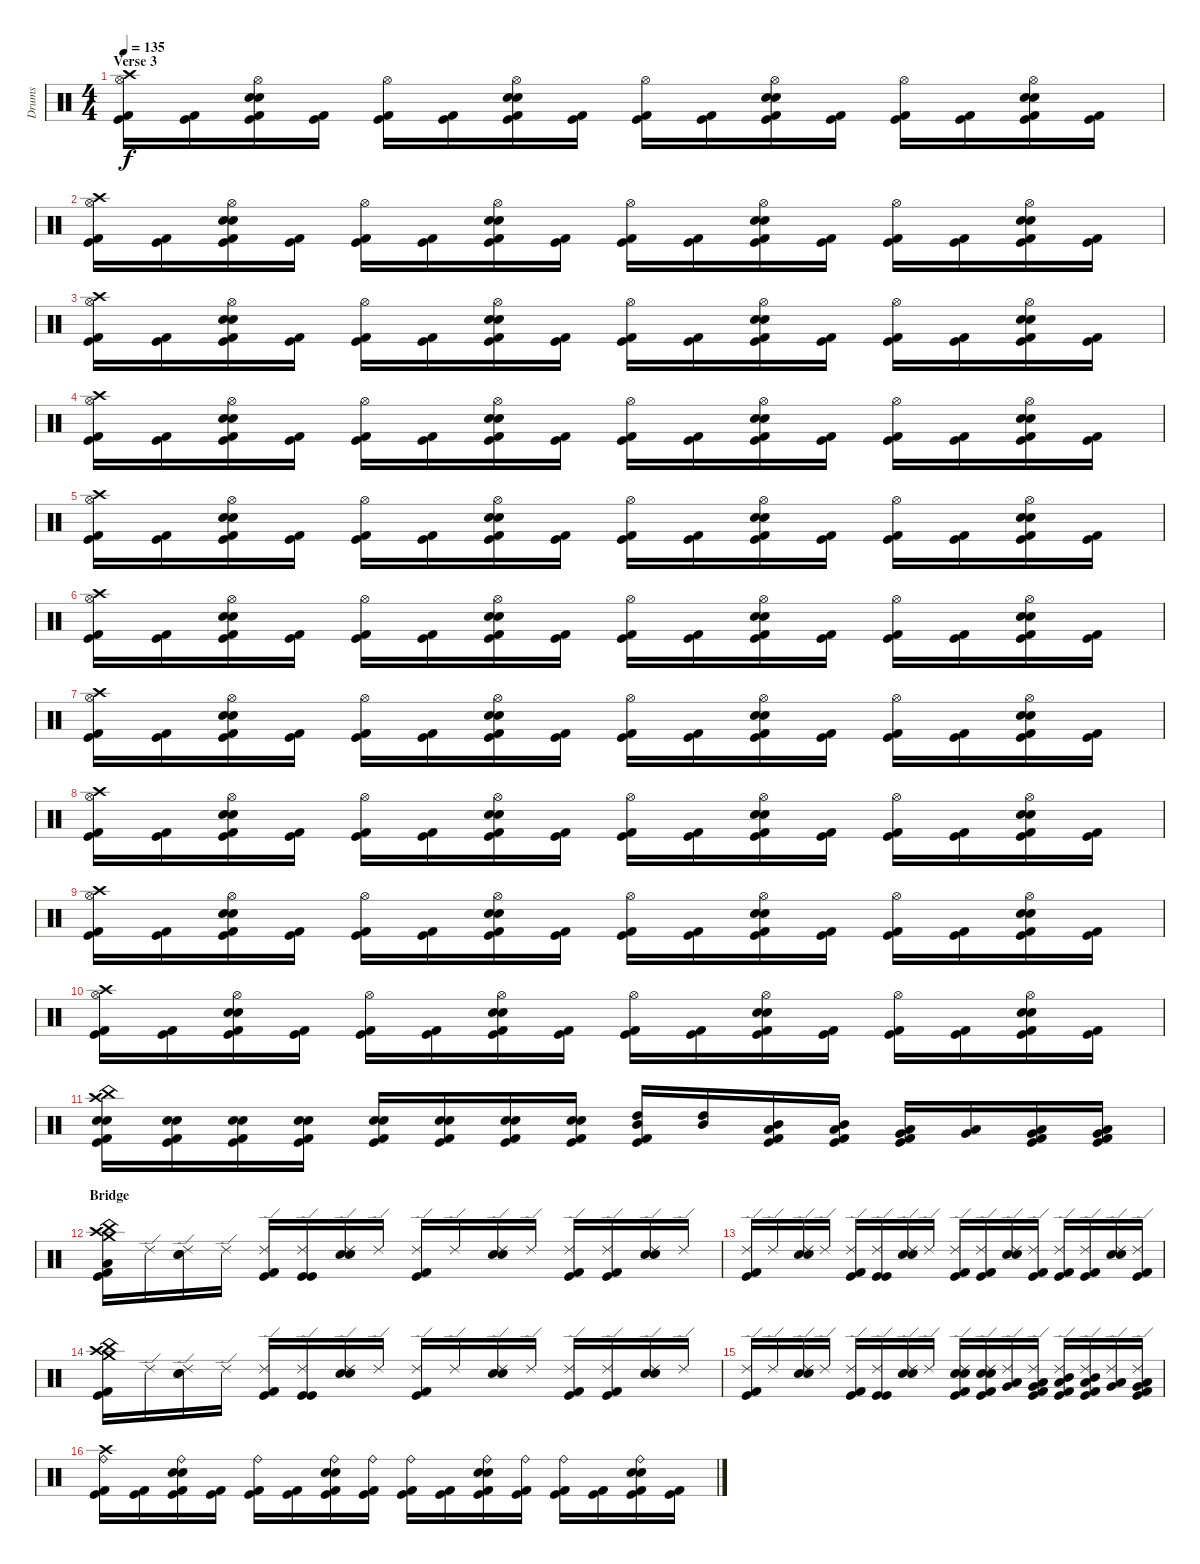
\track ("Drums" "Drums") {instrument percussion}
\staff {score}
\articulation defaults
\ts (4 4)
\section ("" "Verse 3")
\tempo 135
\clef neutral
\ks c
("Crash high (hit)" "Hi-Hat (open)" "Kick (hit) 2" "Kick (hit)").16{dy f} ("Kick (hit) 2" "Kick (hit)").16 ("Hi-Hat (open)" "Snare (hit) 2" "Electric Snare (hit)" "Kick (hit) 2" "Kick (hit)").16 ("Kick (hit) 2" "Kick (hit)").16 ("Hi-Hat (open)" "Kick (hit) 2" "Kick (hit)").16 ("Kick (hit) 2" "Kick (hit)").16 ("Hi-Hat (open)" "Snare (hit) 2" "Electric Snare (hit)" "Kick (hit) 2" "Kick (hit)").16 ("Kick (hit) 2" "Kick (hit)").16 ("Hi-Hat (open)" "Kick (hit) 2" "Kick (hit)").16 ("Kick (hit) 2" "Kick (hit)").16 ("Hi-Hat (open)" "Snare (hit) 2" "Electric Snare (hit)" "Kick (hit) 2" "Kick (hit)").16 ("Kick (hit) 2" "Kick (hit)").16 ("Hi-Hat (open)" "Kick (hit) 2" "Kick (hit)").16 ("Kick (hit) 2" "Kick (hit)").16 ("Hi-Hat (open)" "Snare (hit) 2" "Electric Snare (hit)" "Kick (hit) 2" "Kick (hit)").16 ("Kick (hit) 2" "Kick (hit)").16 |
("Crash high (hit)" "Hi-Hat (open)" "Kick (hit) 2" "Kick (hit)").16 ("Kick (hit) 2" "Kick (hit)").16 ("Hi-Hat (open)" "Snare (hit) 2" "Electric Snare (hit)" "Kick (hit) 2" "Kick (hit)").16 ("Kick (hit) 2" "Kick (hit)").16 ("Hi-Hat (open)" "Kick (hit) 2" "Kick (hit)").16 ("Kick (hit) 2" "Kick (hit)").16 ("Hi-Hat (open)" "Snare (hit) 2" "Electric Snare (hit)" "Kick (hit) 2" "Kick (hit)").16 ("Kick (hit) 2" "Kick (hit)").16 ("Hi-Hat (open)" "Kick (hit) 2" "Kick (hit)").16 ("Kick (hit) 2" "Kick (hit)").16 ("Hi-Hat (open)" "Snare (hit) 2" "Electric Snare (hit)" "Kick (hit) 2" "Kick (hit)").16 ("Kick (hit) 2" "Kick (hit)").16 ("Hi-Hat (open)" "Kick (hit) 2" "Kick (hit)").16 ("Kick (hit) 2" "Kick (hit)").16 ("Hi-Hat (open)" "Snare (hit) 2" "Electric Snare (hit)" "Kick (hit) 2" "Kick (hit)").16 ("Kick (hit) 2" "Kick (hit)").16 |
("Crash high (hit)" "Hi-Hat (open)" "Kick (hit) 2" "Kick (hit)").16 ("Kick (hit) 2" "Kick (hit)").16 ("Hi-Hat (open)" "Snare (hit) 2" "Electric Snare (hit)" "Kick (hit) 2" "Kick (hit)").16 ("Kick (hit) 2" "Kick (hit)").16 ("Hi-Hat (open)" "Kick (hit) 2" "Kick (hit)").16 ("Kick (hit) 2" "Kick (hit)").16 ("Hi-Hat (open)" "Snare (hit) 2" "Electric Snare (hit)" "Kick (hit) 2" "Kick (hit)").16 ("Kick (hit) 2" "Kick (hit)").16 ("Hi-Hat (open)" "Kick (hit) 2" "Kick (hit)").16 ("Kick (hit) 2" "Kick (hit)").16 ("Hi-Hat (open)" "Snare (hit) 2" "Electric Snare (hit)" "Kick (hit) 2" "Kick (hit)").16 ("Kick (hit) 2" "Kick (hit)").16 ("Hi-Hat (open)" "Kick (hit) 2" "Kick (hit)").16 ("Kick (hit) 2" "Kick (hit)").16 ("Hi-Hat (open)" "Snare (hit) 2" "Electric Snare (hit)" "Kick (hit) 2" "Kick (hit)").16 ("Kick (hit) 2" "Kick (hit)").16 |
("Crash high (hit)" "Hi-Hat (open)" "Kick (hit) 2" "Kick (hit)").16 ("Kick (hit) 2" "Kick (hit)").16 ("Hi-Hat (open)" "Snare (hit) 2" "Electric Snare (hit)" "Kick (hit) 2" "Kick (hit)").16 ("Kick (hit) 2" "Kick (hit)").16 ("Hi-Hat (open)" "Kick (hit) 2" "Kick (hit)").16 ("Kick (hit) 2" "Kick (hit)").16 ("Hi-Hat (open)" "Snare (hit) 2" "Electric Snare (hit)" "Kick (hit) 2" "Kick (hit)").16 ("Kick (hit) 2" "Kick (hit)").16 ("Hi-Hat (open)" "Kick (hit) 2" "Kick (hit)").16 ("Kick (hit) 2" "Kick (hit)").16 ("Hi-Hat (open)" "Snare (hit) 2" "Electric Snare (hit)" "Kick (hit) 2" "Kick (hit)").16 ("Kick (hit) 2" "Kick (hit)").16 ("Hi-Hat (open)" "Kick (hit) 2" "Kick (hit)").16 ("Kick (hit) 2" "Kick (hit)").16 ("Hi-Hat (open)" "Snare (hit) 2" "Electric Snare (hit)" "Kick (hit) 2" "Kick (hit)").16 ("Kick (hit) 2" "Kick (hit)").16 |
("Crash high (hit)" "Hi-Hat (open)" "Kick (hit) 2" "Kick (hit)").16 ("Kick (hit) 2" "Kick (hit)").16 ("Hi-Hat (open)" "Snare (hit) 2" "Electric Snare (hit)" "Kick (hit) 2" "Kick (hit)").16 ("Kick (hit) 2" "Kick (hit)").16 ("Hi-Hat (open)" "Kick (hit) 2" "Kick (hit)").16 ("Kick (hit) 2" "Kick (hit)").16 ("Hi-Hat (open)" "Snare (hit) 2" "Electric Snare (hit)" "Kick (hit) 2" "Kick (hit)").16 ("Kick (hit) 2" "Kick (hit)").16 ("Hi-Hat (open)" "Kick (hit) 2" "Kick (hit)").16 ("Kick (hit) 2" "Kick (hit)").16 ("Hi-Hat (open)" "Snare (hit) 2" "Electric Snare (hit)" "Kick (hit) 2" "Kick (hit)").16 ("Kick (hit) 2" "Kick (hit)").16 ("Hi-Hat (open)" "Kick (hit) 2" "Kick (hit)").16 ("Kick (hit) 2" "Kick (hit)").16 ("Hi-Hat (open)" "Snare (hit) 2" "Electric Snare (hit)" "Kick (hit) 2" "Kick (hit)").16 ("Kick (hit) 2" "Kick (hit)").16 |
("Crash high (hit)" "Hi-Hat (open)" "Kick (hit) 2" "Kick (hit)").16 ("Kick (hit) 2" "Kick (hit)").16 ("Hi-Hat (open)" "Snare (hit) 2" "Electric Snare (hit)" "Kick (hit) 2" "Kick (hit)").16 ("Kick (hit) 2" "Kick (hit)").16 ("Hi-Hat (open)" "Kick (hit) 2" "Kick (hit)").16 ("Kick (hit) 2" "Kick (hit)").16 ("Hi-Hat (open)" "Snare (hit) 2" "Electric Snare (hit)" "Kick (hit) 2" "Kick (hit)").16 ("Kick (hit) 2" "Kick (hit)").16 ("Hi-Hat (open)" "Kick (hit) 2" "Kick (hit)").16 ("Kick (hit) 2" "Kick (hit)").16 ("Hi-Hat (open)" "Snare (hit) 2" "Electric Snare (hit)" "Kick (hit) 2" "Kick (hit)").16 ("Kick (hit) 2" "Kick (hit)").16 ("Hi-Hat (open)" "Kick (hit) 2" "Kick (hit)").16 ("Kick (hit) 2" "Kick (hit)").16 ("Hi-Hat (open)" "Snare (hit) 2" "Electric Snare (hit)" "Kick (hit) 2" "Kick (hit)").16 ("Kick (hit) 2" "Kick (hit)").16 |
("Crash high (hit)" "Hi-Hat (open)" "Kick (hit) 2" "Kick (hit)").16 ("Kick (hit) 2" "Kick (hit)").16 ("Hi-Hat (open)" "Snare (hit) 2" "Electric Snare (hit)" "Kick (hit) 2" "Kick (hit)").16 ("Kick (hit) 2" "Kick (hit)").16 ("Hi-Hat (open)" "Kick (hit) 2" "Kick (hit)").16 ("Kick (hit) 2" "Kick (hit)").16 ("Hi-Hat (open)" "Snare (hit) 2" "Electric Snare (hit)" "Kick (hit) 2" "Kick (hit)").16 ("Kick (hit) 2" "Kick (hit)").16 ("Hi-Hat (open)" "Kick (hit) 2" "Kick (hit)").16 ("Kick (hit) 2" "Kick (hit)").16 ("Hi-Hat (open)" "Snare (hit) 2" "Electric Snare (hit)" "Kick (hit) 2" "Kick (hit)").16 ("Kick (hit) 2" "Kick (hit)").16 ("Hi-Hat (open)" "Kick (hit) 2" "Kick (hit)").16 ("Kick (hit) 2" "Kick (hit)").16 ("Hi-Hat (open)" "Snare (hit) 2" "Electric Snare (hit)" "Kick (hit) 2" "Kick (hit)").16 ("Kick (hit) 2" "Kick (hit)").16 |
("Crash high (hit)" "Hi-Hat (open)" "Kick (hit) 2" "Kick (hit)").16 ("Kick (hit) 2" "Kick (hit)").16 ("Hi-Hat (open)" "Snare (hit) 2" "Electric Snare (hit)" "Kick (hit) 2" "Kick (hit)").16 ("Kick (hit) 2" "Kick (hit)").16 ("Hi-Hat (open)" "Kick (hit) 2" "Kick (hit)").16 ("Kick (hit) 2" "Kick (hit)").16 ("Hi-Hat (open)" "Snare (hit) 2" "Electric Snare (hit)" "Kick (hit) 2" "Kick (hit)").16 ("Kick (hit) 2" "Kick (hit)").16 ("Hi-Hat (open)" "Kick (hit) 2" "Kick (hit)").16 ("Kick (hit) 2" "Kick (hit)").16 ("Hi-Hat (open)" "Snare (hit) 2" "Electric Snare (hit)" "Kick (hit) 2" "Kick (hit)").16 ("Kick (hit) 2" "Kick (hit)").16 ("Hi-Hat (open)" "Kick (hit) 2" "Kick (hit)").16 ("Kick (hit) 2" "Kick (hit)").16 ("Hi-Hat (open)" "Snare (hit) 2" "Electric Snare (hit)" "Kick (hit) 2" "Kick (hit)").16 ("Kick (hit) 2" "Kick (hit)").16 |
("Crash high (hit)" "Hi-Hat (open)" "Kick (hit) 2" "Kick (hit)").16 ("Kick (hit) 2" "Kick (hit)").16 ("Hi-Hat (open)" "Snare (hit) 2" "Electric Snare (hit)" "Kick (hit) 2" "Kick (hit)").16 ("Kick (hit) 2" "Kick (hit)").16 ("Hi-Hat (open)" "Kick (hit) 2" "Kick (hit)").16 ("Kick (hit) 2" "Kick (hit)").16 ("Hi-Hat (open)" "Snare (hit) 2" "Electric Snare (hit)" "Kick (hit) 2" "Kick (hit)").16 ("Kick (hit) 2" "Kick (hit)").16 ("Hi-Hat (open)" "Kick (hit) 2" "Kick (hit)").16 ("Kick (hit) 2" "Kick (hit)").16 ("Hi-Hat (open)" "Snare (hit) 2" "Electric Snare (hit)" "Kick (hit) 2" "Kick (hit)").16 ("Kick (hit) 2" "Kick (hit)").16 ("Hi-Hat (open)" "Kick (hit) 2" "Kick (hit)").16 ("Kick (hit) 2" "Kick (hit)").16 ("Hi-Hat (open)" "Snare (hit) 2" "Electric Snare (hit)" "Kick (hit) 2" "Kick (hit)").16 ("Kick (hit) 2" "Kick (hit)").16 |
("Crash high (hit)" "Hi-Hat (open)" "Kick (hit) 2" "Kick (hit)").16 ("Kick (hit) 2" "Kick (hit)").16 ("Hi-Hat (open)" "Snare (hit) 2" "Electric Snare (hit)" "Kick (hit) 2" "Kick (hit)").16 ("Kick (hit) 2" "Kick (hit)").16 ("Hi-Hat (open)" "Kick (hit) 2" "Kick (hit)").16 ("Kick (hit) 2" "Kick (hit)").16 ("Hi-Hat (open)" "Snare (hit) 2" "Electric Snare (hit)" "Kick (hit) 2" "Kick (hit)").16 ("Kick (hit) 2" "Kick (hit)").16 ("Hi-Hat (open)" "Kick (hit) 2" "Kick (hit)").16 ("Kick (hit) 2" "Kick (hit)").16 ("Hi-Hat (open)" "Snare (hit) 2" "Electric Snare (hit)" "Kick (hit) 2" "Kick (hit)").16 ("Kick (hit) 2" "Kick (hit)").16 ("Hi-Hat (open)" "Kick (hit) 2" "Kick (hit)").16 ("Kick (hit) 2" "Kick (hit)").16 ("Hi-Hat (open)" "Snare (hit) 2" "Electric Snare (hit)" "Kick (hit) 2" "Kick (hit)").16 ("Kick (hit) 2" "Kick (hit)").16 |
("Crash high (hit)" "China (hit)" "Snare (hit) 2" "Electric Snare (hit)" "Kick (hit) 2" "Kick (hit)").16 ("Electric Snare (hit)" "Snare (hit) 2" "Kick (hit) 2" "Kick (hit)").16 ("Electric Snare (hit)" "Snare (hit) 2" "Kick (hit) 2" "Kick (hit)").16 ("Electric Snare (hit)" "Snare (hit) 2" "Kick (hit) 2" "Kick (hit)").16 ("Electric Snare (hit)" "Snare (hit) 2" "Kick (hit) 2" "Kick (hit)").16 ("Electric Snare (hit)" "Snare (hit) 2" "Kick (hit) 2" "Kick (hit)").16 ("Electric Snare (hit)" "Snare (hit) 2" "Kick (hit) 2" "Kick (hit)").16 ("Electric Snare (hit)" "Snare (hit) 2" "Kick (hit) 2" "Kick (hit)").16 ("High Tom (hit)" "Mid Tom (hit)" "Kick (hit) 2" "Kick (hit)").16 ("Mid Tom (hit)" "High Tom (hit)").16 ("Mid Tom (hit)" "Low Tom (hit)" "Kick (hit) 2" "Kick (hit)").16 ("Mid Tom (hit)" "Low Tom (hit)" "Kick (hit) 2" "Kick (hit)").16 ("Low Tom (hit)" "Very Low Tom (hit)" "Kick (hit) 2" "Kick (hit)").16 ("Very Low Tom (hit)" "Low Tom (hit)").16 ("Very Low Tom (hit)" "Low Floor Tom (hit)" "Kick (hit) 2" "Kick (hit)").16 ("Very Low Tom (hit)" "Low Floor Tom (hit)" "Kick (hit) 2" "Kick (hit)").16 |
\section ("" "Bridge")
("Crash high (hit)" "China (hit)" "Crash medium (hit)" "Low Tom (hit)" "Kick (hit) 2" "Kick (hit)").16 "Ride (edge) 2".16 ("Ride (edge) 2" "Snare (hit) 2" "Electric Snare (hit)").16 "Ride (edge) 2".16 ("Ride (edge) 2" "Kick (hit) 2" "Kick (hit)").16 ("Ride (edge) 2" "Kick (hit)" "Kick (hit)").16 ("Ride (edge) 2" "Electric Snare (hit)" "Snare (hit) 2").16 "Ride (edge) 2".16 ("Ride (edge) 2" "Kick (hit) 2" "Kick (hit)").16 "Ride (edge) 2".16 ("Ride (edge) 2" "Electric Snare (hit)" "Snare (hit) 2").16 "Ride (edge) 2".16 ("Ride (edge) 2" "Kick (hit) 2" "Kick (hit)").16 ("Ride (edge) 2" "Kick (hit) 2" "Kick (hit)").16 ("Ride (edge) 2" "Electric Snare (hit)" "Snare (hit) 2").16 "Ride (edge) 2".16 |
("Ride (edge) 2" "Kick (hit) 2" "Kick (hit)").16 "Ride (edge) 2".16 ("Ride (edge) 2" "Snare (hit) 2" "Electric Snare (hit)").16 "Ride (edge) 2".16 ("Ride (edge) 2" "Kick (hit) 2" "Kick (hit)").16 ("Ride (edge) 2" "Kick (hit)" "Kick (hit)").16 ("Ride (edge) 2" "Electric Snare (hit)" "Snare (hit) 2").16 "Ride (edge) 2".16 ("Ride (edge) 2" "Kick (hit) 2" "Kick (hit)").16 ("Ride (edge) 2" "Kick (hit) 2" "Kick (hit)").16 ("Ride (edge) 2" "Electric Snare (hit)" "Snare (hit) 2").16 ("Ride (edge) 2" "Kick (hit)" "Kick (hit) 2").16 ("Ride (edge) 2" "Kick (hit) 2" "Kick (hit)").16 ("Ride (edge) 2" "Kick (hit) 2" "Kick (hit)").16 ("Ride (edge) 2" "Electric Snare (hit)" "Snare (hit) 2").16 ("Ride (edge) 2" "Kick (hit) 2" "Kick (hit)").16 |
("Crash high (hit)" "China (hit)" "Crash medium (hit)" "Kick (hit) 2" "Kick (hit)").16 "Ride (edge) 2".16 ("Ride (edge) 2" "Snare (hit) 2" "Electric Snare (hit)").16 "Ride (edge) 2".16 ("Ride (edge) 2" "Kick (hit) 2" "Kick (hit)").16 ("Ride (edge) 2" "Kick (hit)" "Kick (hit)").16 ("Ride (edge) 2" "Electric Snare (hit)" "Snare (hit) 2").16 "Ride (edge) 2".16 ("Ride (edge) 2" "Kick (hit) 2" "Kick (hit)").16 "Ride (edge) 2".16 ("Ride (edge) 2" "Electric Snare (hit)" "Snare (hit) 2").16 "Ride (edge) 2".16 ("Ride (edge) 2" "Kick (hit) 2" "Kick (hit)").16 ("Ride (edge) 2" "Kick (hit) 2" "Kick (hit)").16 ("Ride (edge) 2" "Electric Snare (hit)" "Snare (hit) 2").16 "Ride (edge) 2".16 |
("Ride (edge) 2" "Kick (hit) 2" "Kick (hit)").16 "Ride (edge) 2".16 ("Ride (edge) 2" "Snare (hit) 2" "Electric Snare (hit)").16 "Ride (edge) 2".16 ("Ride (edge) 2" "Kick (hit) 2" "Kick (hit)").16 ("Ride (edge) 2" "Kick (hit)" "Kick (hit)").16 ("Ride (edge) 2" "Electric Snare (hit)" "Snare (hit) 2").16 "Ride (edge) 2".16 ("Ride (edge) 2" "Electric Snare (hit)" "Snare (hit) 2" "Kick (hit) 2" "Kick (hit)").16 ("Ride (edge) 2" "Snare (hit) 2" "Electric Snare (hit)" "Kick (hit) 2" "Kick (hit)").16 ("Ride (edge) 2" "Very Low Tom (hit)" "Low Tom (hit)").16 ("Ride (edge) 2" "Very Low Tom (hit)" "Low Tom (hit)" "Kick (hit)" "Kick (hit) 2").16 ("Ride (edge) 2" "Mid Tom (hit)" "Low Tom (hit)" "Kick (hit) 2" "Kick (hit)").16 ("Ride (edge) 2" "Mid Tom (hit)" "Low Tom (hit)" "Kick (hit) 2" "Kick (hit)").16 ("Ride (edge) 2" "Low Tom (hit)" "Very Low Tom (hit)").16 ("Ride (edge) 2" "Low Tom (hit)" "Very Low Tom (hit)" "Kick (hit) 2" "Kick (hit)").16 |
("Crash high (hit)" "Ride (bell)" "Kick (hit) 2" "Kick (hit)").16 ("Kick (hit) 2" "Kick (hit)").16 ("Ride (bell)" "Snare (hit) 2" "Electric Snare (hit)" "Kick (hit) 2" "Kick (hit)").16 ("Kick (hit) 2" "Kick (hit)").16 ("Ride (bell)" "Kick (hit) 2" "Kick (hit)").16 ("Kick (hit) 2" "Kick (hit)").16 ("Ride (bell)" "Snare (hit) 2" "Electric Snare (hit)" "Kick (hit) 2" "Kick (hit)").16 ("Ride (bell)" "Kick (hit) 2" "Kick (hit)").16 ("Ride (bell)" "Kick (hit) 2" "Kick (hit)").16 ("Kick (hit) 2" "Kick (hit)").16 ("Ride (bell)" "Snare (hit) 2" "Electric Snare (hit)" "Kick (hit) 2" "Kick (hit)").16 ("Ride (bell)" "Kick (hit) 2" "Kick (hit)").16 ("Ride (bell)" "Kick (hit) 2" "Kick (hit)").16 ("Kick (hit) 2" "Kick (hit)").16 ("Ride (bell)" "Snare (hit) 2" "Electric Snare (hit)" "Kick (hit) 2" "Kick (hit)").16 ("Kick (hit) 2" "Kick (hit)").16
